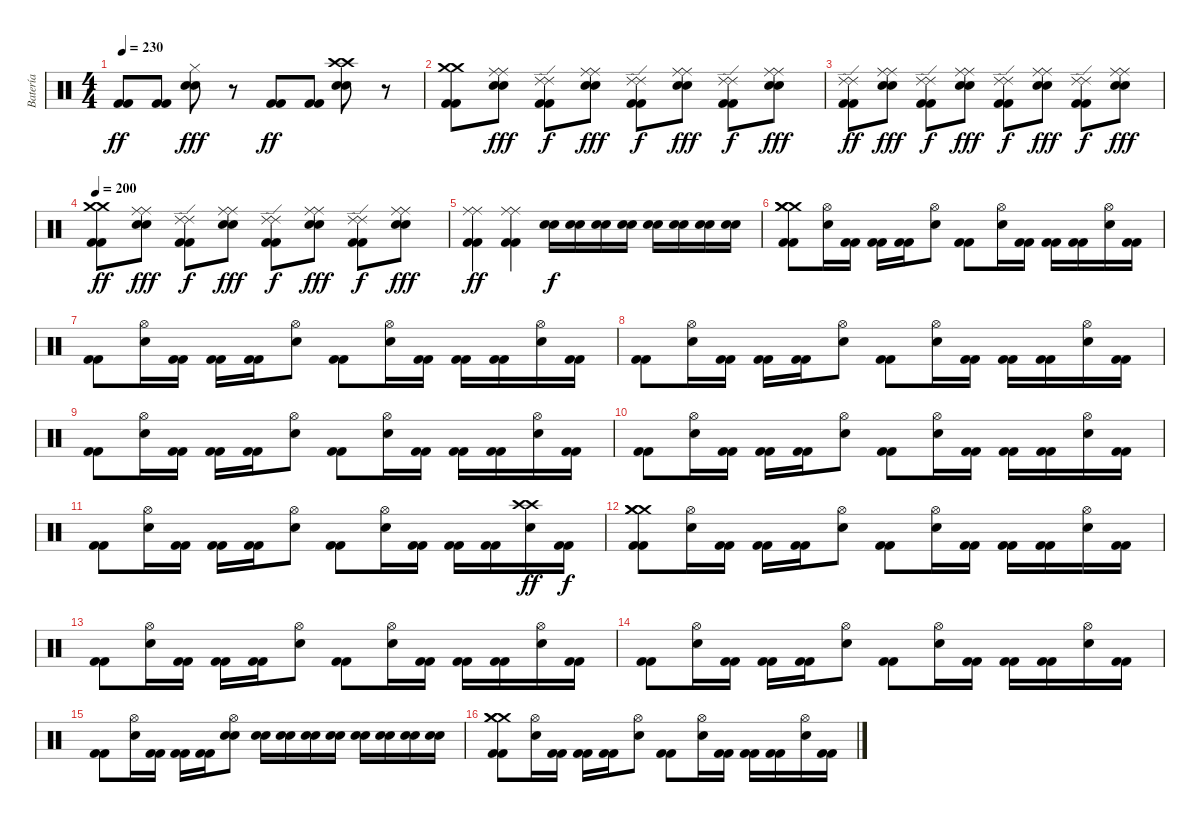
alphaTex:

\track ("Batería" "Batería") {instrument percussion}
\staff {score}
\articulation defaults
\ts (4 4)
\tempo 230
\clef neutral
\ks c
("Kick (hit) 2" "Kick (hit) 2").8{dy ff} ("Kick (hit) 2" "Kick (hit) 2").8 ("Hi-Hat (closed)" "Electric Snare (hit)" "Electric Snare (hit)").8{dy fff} r.8 ("Kick (hit) 2" "Kick (hit) 2").8{dy ff} ("Kick (hit) 2" "Kick (hit) 2").8 ("Crash high (hit)" "Crash high (hit)" "Electric Snare (hit)" "Electric Snare (hit)").8 r.8 |
("Crash medium (hit)" "Crash medium (hit)" "Kick (hit) 2" "Kick (hit) 2").8 ("Ride (middle)" "Ride (middle)" "Electric Snare (hit)" "Electric Snare (hit)").8{dy fff} ("Ride (edge) 2" "Ride (edge) 2" "Kick (hit) 2" "Kick (hit) 2").8{dy f} ("Ride (middle)" "Ride (middle)" "Electric Snare (hit)" "Electric Snare (hit)").8{dy fff} ("Ride (edge) 2" "Ride (edge) 2" "Kick (hit) 2" "Kick (hit) 2").8{dy f} ("Ride (middle)" "Ride (middle)" "Electric Snare (hit)" "Electric Snare (hit)").8{dy fff} ("Ride (edge) 2" "Ride (edge) 2" "Kick (hit) 2" "Kick (hit) 2").8{dy f} ("Ride (middle)" "Ride (middle)" "Electric Snare (hit)" "Electric Snare (hit)").8{dy fff} |
("Ride (edge) 2" "Ride (edge) 2" "Kick (hit) 2" "Kick (hit) 2").8{dy ff} ("Ride (middle)" "Ride (middle)" "Electric Snare (hit)" "Electric Snare (hit)").8{dy fff} ("Ride (edge) 2" "Ride (edge) 2" "Kick (hit) 2" "Kick (hit) 2").8{dy f} ("Ride (middle)" "Ride (middle)" "Electric Snare (hit)" "Electric Snare (hit)").8{dy fff} ("Ride (edge) 2" "Ride (edge) 2" "Kick (hit) 2" "Kick (hit) 2").8{dy f} ("Ride (middle)" "Ride (middle)" "Electric Snare (hit)" "Electric Snare (hit)").8{dy fff} ("Ride (edge) 2" "Ride (edge) 2" "Kick (hit) 2" "Kick (hit) 2").8{dy f} ("Ride (middle)" "Ride (middle)" "Electric Snare (hit)" "Electric Snare (hit)").8{dy fff} |
\tempo 200
("Crash medium (hit)" "Crash medium (hit)" "Kick (hit) 2" "Kick (hit) 2").8{dy ff} ("Ride (middle)" "Ride (middle)" "Electric Snare (hit)" "Electric Snare (hit)").8{dy fff} ("Ride (edge) 2" "Ride (edge) 2" "Kick (hit) 2" "Kick (hit) 2").8{dy f} ("Ride (middle)" "Ride (middle)" "Electric Snare (hit)" "Electric Snare (hit)").8{dy fff} ("Ride (edge) 2" "Ride (edge) 2" "Kick (hit) 2" "Kick (hit) 2").8{dy f} ("Ride (middle)" "Ride (middle)" "Electric Snare (hit)" "Electric Snare (hit)").8{dy fff} ("Ride (edge) 2" "Ride (edge) 2" "Kick (hit) 2" "Kick (hit) 2").8{dy f} ("Ride (middle)" "Ride (middle)" "Electric Snare (hit)" "Electric Snare (hit)").8{dy fff} |
("Ride (middle)" "Ride (middle)" "Kick (hit) 2" "Kick (hit) 2").4{dy ff} ("Ride (middle)" "Ride (middle)" "Kick (hit) 2" "Kick (hit) 2").4 ("Electric Snare (hit)" "Electric Snare (hit)").16{dy f} ("Electric Snare (hit)" "Electric Snare (hit)").16 ("Electric Snare (hit)" "Electric Snare (hit)").16 ("Electric Snare (hit)" "Electric Snare (hit)").16 ("Electric Snare (hit)" "Electric Snare (hit)").16 ("Electric Snare (hit)" "Electric Snare (hit)").16 ("Electric Snare (hit)" "Electric Snare (hit)").16 ("Electric Snare (hit)" "Electric Snare (hit)").16 |
("Crash medium (hit)" "Crash medium (hit)" "Crash medium (hit)" "Kick (hit) 2" "Kick (hit) 2").8 ("Hi-Hat (open)" "Electric Snare (hit)").16 ("Kick (hit) 2" "Kick (hit) 2").16 ("Kick (hit) 2" "Kick (hit) 2").16 ("Kick (hit) 2" "Kick (hit) 2").16 ("Hi-Hat (open)" "Electric Snare (hit)").8 ("Kick (hit) 2" "Kick (hit) 2").8 ("Hi-Hat (open)" "Electric Snare (hit)").16 ("Kick (hit) 2" "Kick (hit) 2").16 ("Kick (hit) 2" "Kick (hit) 2").16 ("Kick (hit) 2" "Kick (hit) 2").16 ("Hi-Hat (open)" "Electric Snare (hit)").16 ("Kick (hit) 2" "Kick (hit) 2").16 |
("Kick (hit) 2" "Kick (hit) 2").8 ("Hi-Hat (open)" "Electric Snare (hit)").16 ("Kick (hit) 2" "Kick (hit) 2").16 ("Kick (hit) 2" "Kick (hit) 2").16 ("Kick (hit) 2" "Kick (hit) 2").16 ("Hi-Hat (open)" "Electric Snare (hit)").8 ("Kick (hit) 2" "Kick (hit) 2").8 ("Hi-Hat (open)" "Electric Snare (hit)").16 ("Kick (hit) 2" "Kick (hit) 2").16 ("Kick (hit) 2" "Kick (hit) 2").16 ("Kick (hit) 2" "Kick (hit) 2").16 ("Hi-Hat (open)" "Electric Snare (hit)").16 ("Kick (hit) 2" "Kick (hit) 2").16 |
("Kick (hit) 2" "Kick (hit) 2").8 ("Hi-Hat (open)" "Electric Snare (hit)").16 ("Kick (hit) 2" "Kick (hit) 2").16 ("Kick (hit) 2" "Kick (hit) 2").16 ("Kick (hit) 2" "Kick (hit) 2").16 ("Hi-Hat (open)" "Electric Snare (hit)").8 ("Kick (hit) 2" "Kick (hit) 2").8 ("Hi-Hat (open)" "Electric Snare (hit)").16 ("Kick (hit) 2" "Kick (hit) 2").16 ("Kick (hit) 2" "Kick (hit) 2").16 ("Kick (hit) 2" "Kick (hit) 2").16 ("Hi-Hat (open)" "Electric Snare (hit)").16 ("Kick (hit) 2" "Kick (hit) 2").16 |
("Kick (hit) 2" "Kick (hit) 2").8 ("Hi-Hat (open)" "Electric Snare (hit)").16 ("Kick (hit) 2" "Kick (hit) 2").16 ("Kick (hit) 2" "Kick (hit) 2").16 ("Kick (hit) 2" "Kick (hit) 2").16 ("Hi-Hat (open)" "Electric Snare (hit)").8 ("Kick (hit) 2" "Kick (hit) 2").8 ("Hi-Hat (open)" "Electric Snare (hit)").16 ("Kick (hit) 2" "Kick (hit) 2").16 ("Kick (hit) 2" "Kick (hit) 2").16 ("Kick (hit) 2" "Kick (hit) 2").16 ("Hi-Hat (open)" "Electric Snare (hit)").16 ("Kick (hit) 2" "Kick (hit) 2").16 |
("Kick (hit) 2" "Kick (hit) 2").8 ("Hi-Hat (open)" "Electric Snare (hit)").16 ("Kick (hit) 2" "Kick (hit) 2").16 ("Kick (hit) 2" "Kick (hit) 2").16 ("Kick (hit) 2" "Kick (hit) 2").16 ("Hi-Hat (open)" "Electric Snare (hit)").8 ("Kick (hit) 2" "Kick (hit) 2").8 ("Hi-Hat (open)" "Electric Snare (hit)").16 ("Kick (hit) 2" "Kick (hit) 2").16 ("Kick (hit) 2" "Kick (hit) 2").16 ("Kick (hit) 2" "Kick (hit) 2").16 ("Hi-Hat (open)" "Electric Snare (hit)").16 ("Kick (hit) 2" "Kick (hit) 2").16 |
("Kick (hit) 2" "Kick (hit) 2").8 ("Hi-Hat (open)" "Electric Snare (hit)").16 ("Kick (hit) 2" "Kick (hit) 2").16 ("Kick (hit) 2" "Kick (hit) 2").16 ("Kick (hit) 2" "Kick (hit) 2").16 ("Hi-Hat (open)" "Electric Snare (hit)").8 ("Kick (hit) 2" "Kick (hit) 2").8 ("Hi-Hat (open)" "Electric Snare (hit)").16 ("Kick (hit) 2" "Kick (hit) 2").16 ("Kick (hit) 2" "Kick (hit) 2").16 ("Kick (hit) 2" "Kick (hit) 2").16 ("Crash high (hit)" "Crash high (hit)" "Electric Snare (hit)").16{dy ff} ("Kick (hit) 2" "Kick (hit) 2").16{dy f} |
("Crash medium (hit)" "Crash medium (hit)" "Crash medium (hit)" "Kick (hit) 2" "Kick (hit) 2").8 ("Hi-Hat (open)" "Electric Snare (hit)").16 ("Kick (hit) 2" "Kick (hit) 2").16 ("Kick (hit) 2" "Kick (hit) 2").16 ("Kick (hit) 2" "Kick (hit) 2").16 ("Hi-Hat (open)" "Electric Snare (hit)").8 ("Kick (hit) 2" "Kick (hit) 2").8 ("Hi-Hat (open)" "Electric Snare (hit)").16 ("Kick (hit) 2" "Kick (hit) 2").16 ("Kick (hit) 2" "Kick (hit) 2").16 ("Kick (hit) 2" "Kick (hit) 2").16 ("Hi-Hat (open)" "Electric Snare (hit)").16 ("Kick (hit) 2" "Kick (hit) 2").16 |
("Kick (hit) 2" "Kick (hit) 2").8 ("Hi-Hat (open)" "Electric Snare (hit)").16 ("Kick (hit) 2" "Kick (hit) 2").16 ("Kick (hit) 2" "Kick (hit) 2").16 ("Kick (hit) 2" "Kick (hit) 2").16 ("Hi-Hat (open)" "Electric Snare (hit)").8 ("Kick (hit) 2" "Kick (hit) 2").8 ("Hi-Hat (open)" "Electric Snare (hit)").16 ("Kick (hit) 2" "Kick (hit) 2").16 ("Kick (hit) 2" "Kick (hit) 2").16 ("Kick (hit) 2" "Kick (hit) 2").16 ("Hi-Hat (open)" "Electric Snare (hit)").16 ("Kick (hit) 2" "Kick (hit) 2").16 |
("Kick (hit) 2" "Kick (hit) 2").8 ("Hi-Hat (open)" "Electric Snare (hit)").16 ("Kick (hit) 2" "Kick (hit) 2").16 ("Kick (hit) 2" "Kick (hit) 2").16 ("Kick (hit) 2" "Kick (hit) 2").16 ("Hi-Hat (open)" "Electric Snare (hit)").8 ("Kick (hit) 2" "Kick (hit) 2").8 ("Hi-Hat (open)" "Electric Snare (hit)").16 ("Kick (hit) 2" "Kick (hit) 2").16 ("Kick (hit) 2" "Kick (hit) 2").16 ("Kick (hit) 2" "Kick (hit) 2").16 ("Hi-Hat (open)" "Electric Snare (hit)").16 ("Kick (hit) 2" "Kick (hit) 2").16 |
("Kick (hit) 2" "Kick (hit) 2").8 ("Hi-Hat (open)" "Electric Snare (hit)").16 ("Kick (hit) 2" "Kick (hit) 2").16 ("Kick (hit) 2" "Kick (hit) 2").16 ("Kick (hit) 2" "Kick (hit) 2").16 ("Hi-Hat (open)" "Electric Snare (hit)" "Electric Snare (hit)").8 ("Electric Snare (hit)" "Electric Snare (hit)").16 ("Electric Snare (hit)" "Electric Snare (hit)").16 ("Electric Snare (hit)" "Electric Snare (hit)").16 ("Electric Snare (hit)" "Electric Snare (hit)").16 ("Electric Snare (hit)" "Electric Snare (hit)").16 ("Electric Snare (hit)" "Electric Snare (hit)").16 ("Electric Snare (hit)" "Electric Snare (hit)").16 ("Electric Snare (hit)" "Electric Snare (hit)").16 |
("Crash medium (hit)" "Crash medium (hit)" "Crash medium (hit)" "Kick (hit) 2" "Kick (hit) 2").8 ("Hi-Hat (open)" "Electric Snare (hit)").16 ("Kick (hit) 2" "Kick (hit) 2").16 ("Kick (hit) 2" "Kick (hit) 2").16 ("Kick (hit) 2" "Kick (hit) 2").16 ("Hi-Hat (open)" "Electric Snare (hit)").8 ("Kick (hit) 2" "Kick (hit) 2").8 ("Hi-Hat (open)" "Electric Snare (hit)").16 ("Kick (hit) 2" "Kick (hit) 2").16 ("Kick (hit) 2" "Kick (hit) 2").16 ("Kick (hit) 2" "Kick (hit) 2").16 ("Hi-Hat (open)" "Electric Snare (hit)").16 ("Kick (hit) 2" "Kick (hit) 2").16
